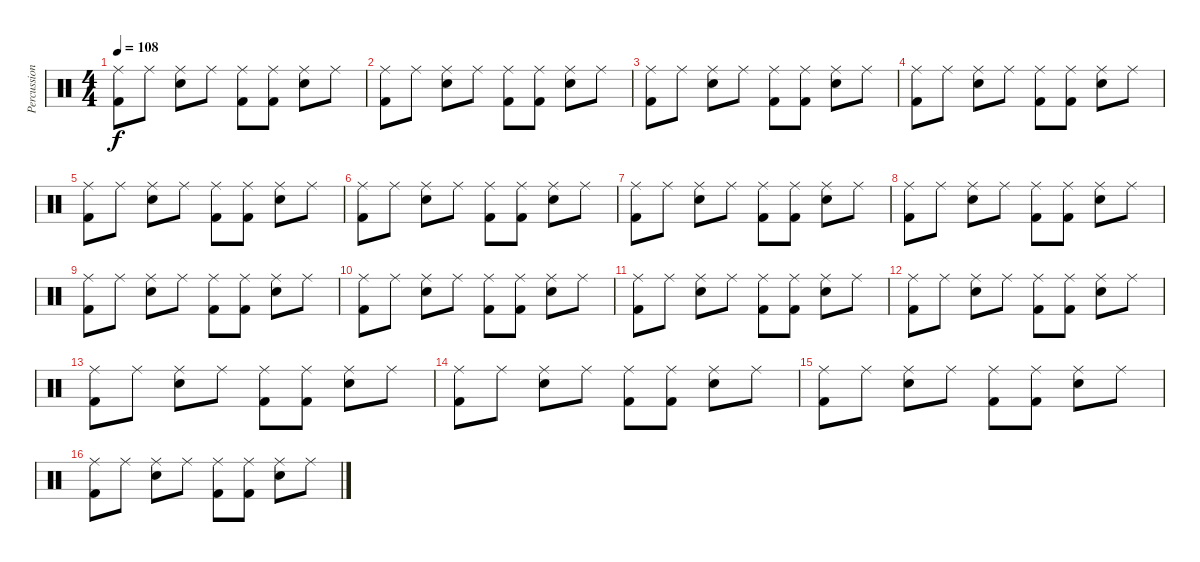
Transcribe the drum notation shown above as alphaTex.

\track ("Percussion" "Percussion") {instrument percussion}
\staff {score}
\articulation defaults
\ts (4 4)
\tempo 108
\clef neutral
\ks c
("Ride (middle)" "Kick (hit) 2").8{dy f} "Ride (middle)".8 ("Ride (middle)" "Electric Snare (hit)").8 "Ride (middle)".8 ("Ride (middle)" "Kick (hit) 2").8 ("Ride (middle)" "Kick (hit) 2").8 ("Ride (middle)" "Electric Snare (hit)").8 "Ride (middle)".8 |
("Ride (middle)" "Kick (hit) 2").8 "Ride (middle)".8 ("Ride (middle)" "Electric Snare (hit)").8 "Ride (middle)".8 ("Ride (middle)" "Kick (hit) 2").8 ("Ride (middle)" "Kick (hit) 2").8 ("Ride (middle)" "Electric Snare (hit)").8 "Ride (middle)".8 |
("Ride (middle)" "Kick (hit) 2").8 "Ride (middle)".8 ("Ride (middle)" "Electric Snare (hit)").8 "Ride (middle)".8 ("Ride (middle)" "Kick (hit) 2").8 ("Ride (middle)" "Kick (hit) 2").8 ("Ride (middle)" "Electric Snare (hit)").8 "Ride (middle)".8 |
("Ride (middle)" "Kick (hit) 2").8 "Ride (middle)".8 ("Ride (middle)" "Electric Snare (hit)").8 "Ride (middle)".8 ("Ride (middle)" "Kick (hit) 2").8 ("Ride (middle)" "Kick (hit) 2").8 ("Ride (middle)" "Electric Snare (hit)").8 "Ride (middle)".8 |
("Ride (middle)" "Kick (hit) 2").8 "Ride (middle)".8 ("Ride (middle)" "Electric Snare (hit)").8 "Ride (middle)".8 ("Ride (middle)" "Kick (hit) 2").8 ("Ride (middle)" "Kick (hit) 2").8 ("Ride (middle)" "Electric Snare (hit)").8 "Ride (middle)".8 |
("Ride (middle)" "Kick (hit) 2").8 "Ride (middle)".8 ("Ride (middle)" "Electric Snare (hit)").8 "Ride (middle)".8 ("Ride (middle)" "Kick (hit) 2").8 ("Ride (middle)" "Kick (hit) 2").8 ("Ride (middle)" "Electric Snare (hit)").8 "Ride (middle)".8 |
("Ride (middle)" "Kick (hit) 2").8 "Ride (middle)".8 ("Ride (middle)" "Electric Snare (hit)").8 "Ride (middle)".8 ("Ride (middle)" "Kick (hit) 2").8 ("Ride (middle)" "Kick (hit) 2").8 ("Ride (middle)" "Electric Snare (hit)").8 "Ride (middle)".8 |
("Ride (middle)" "Kick (hit) 2").8 "Ride (middle)".8 ("Ride (middle)" "Electric Snare (hit)").8 "Ride (middle)".8 ("Ride (middle)" "Kick (hit) 2").8 ("Ride (middle)" "Kick (hit) 2").8 ("Ride (middle)" "Electric Snare (hit)").8 "Ride (middle)".8 |
("Ride (middle)" "Kick (hit) 2").8 "Ride (middle)".8 ("Ride (middle)" "Electric Snare (hit)").8 "Ride (middle)".8 ("Ride (middle)" "Kick (hit) 2").8 ("Ride (middle)" "Kick (hit) 2").8 ("Ride (middle)" "Electric Snare (hit)").8 "Ride (middle)".8 |
("Ride (middle)" "Kick (hit) 2").8 "Ride (middle)".8 ("Ride (middle)" "Electric Snare (hit)").8 "Ride (middle)".8 ("Ride (middle)" "Kick (hit) 2").8 ("Ride (middle)" "Kick (hit) 2").8 ("Ride (middle)" "Electric Snare (hit)").8 "Ride (middle)".8 |
("Ride (middle)" "Kick (hit) 2").8 "Ride (middle)".8 ("Ride (middle)" "Electric Snare (hit)").8 "Ride (middle)".8 ("Ride (middle)" "Kick (hit) 2").8 ("Ride (middle)" "Kick (hit) 2").8 ("Ride (middle)" "Electric Snare (hit)").8 "Ride (middle)".8 |
("Ride (middle)" "Kick (hit) 2").8 "Ride (middle)".8 ("Ride (middle)" "Electric Snare (hit)").8 "Ride (middle)".8 ("Ride (middle)" "Kick (hit) 2").8 ("Ride (middle)" "Kick (hit) 2").8 ("Ride (middle)" "Electric Snare (hit)").8 "Ride (middle)".8 |
("Ride (middle)" "Kick (hit) 2").8 "Ride (middle)".8 ("Ride (middle)" "Electric Snare (hit)").8 "Ride (middle)".8 ("Ride (middle)" "Kick (hit) 2").8 ("Ride (middle)" "Kick (hit) 2").8 ("Ride (middle)" "Electric Snare (hit)").8 "Ride (middle)".8 |
("Ride (middle)" "Kick (hit) 2").8 "Ride (middle)".8 ("Ride (middle)" "Electric Snare (hit)").8 "Ride (middle)".8 ("Ride (middle)" "Kick (hit) 2").8 ("Ride (middle)" "Kick (hit) 2").8 ("Ride (middle)" "Electric Snare (hit)").8 "Ride (middle)".8 |
("Ride (middle)" "Kick (hit) 2").8 "Ride (middle)".8 ("Ride (middle)" "Electric Snare (hit)").8 "Ride (middle)".8 ("Ride (middle)" "Kick (hit) 2").8 ("Ride (middle)" "Kick (hit) 2").8 ("Ride (middle)" "Electric Snare (hit)").8 "Ride (middle)".8 |
("Ride (middle)" "Kick (hit) 2").8 "Ride (middle)".8 ("Ride (middle)" "Electric Snare (hit)").8 "Ride (middle)".8 ("Ride (middle)" "Kick (hit) 2").8 ("Ride (middle)" "Kick (hit) 2").8 ("Ride (middle)" "Electric Snare (hit)").8 "Ride (middle)".8
